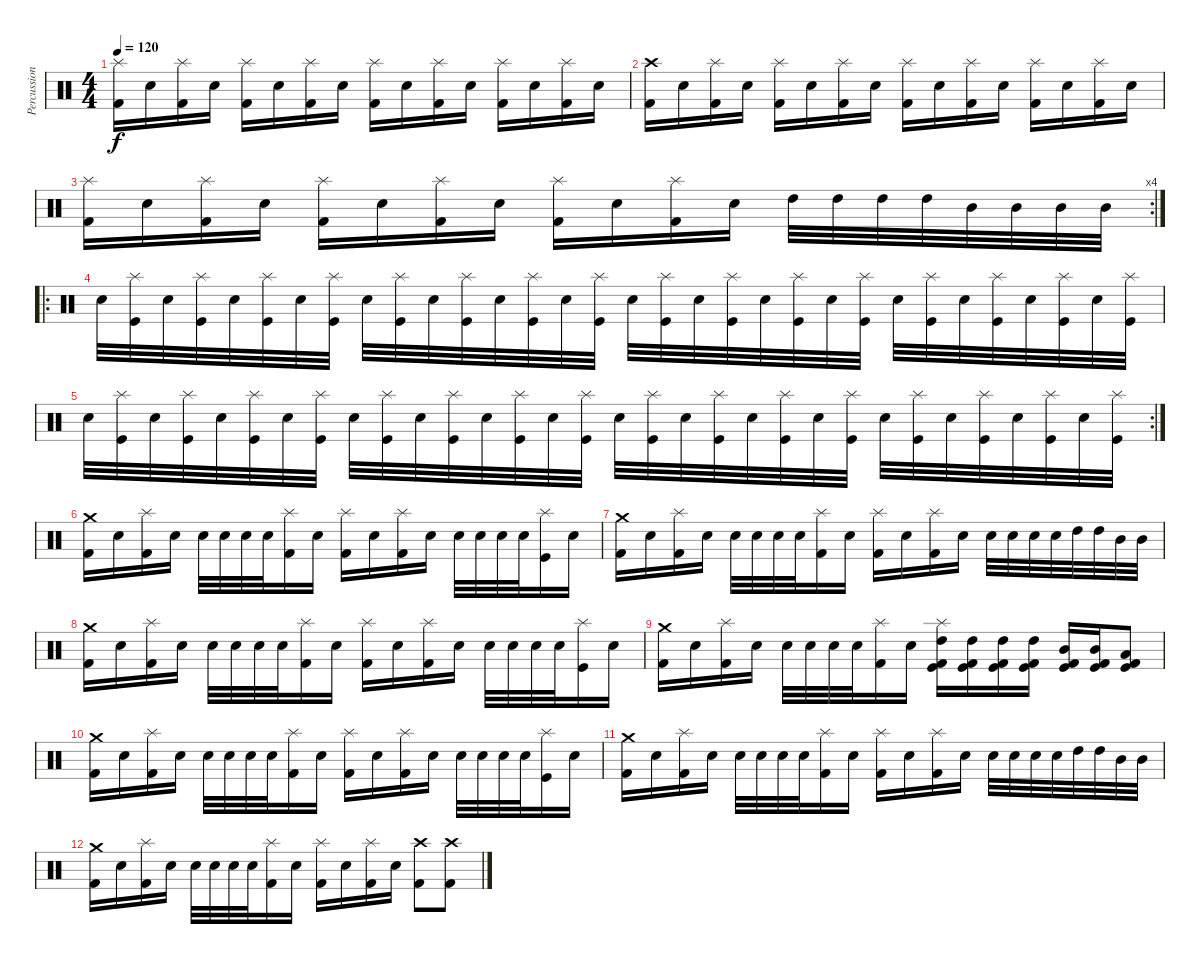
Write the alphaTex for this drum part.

\track ("Percussion" "Percussion") {instrument percussion}
\staff {score}
\articulation defaults
\ts (4 4)
\tempo 120
\clef neutral
\ks c
("Splash (hit)" "Kick (hit) 2").16{dy f} "Electric Snare (hit)".16 ("Splash (hit)" "Kick (hit) 2").16 "Electric Snare (hit)".16 ("Splash (hit)" "Kick (hit) 2").16 "Electric Snare (hit)".16 ("Splash (hit)" "Kick (hit) 2").16 "Electric Snare (hit)".16 ("Splash (hit)" "Kick (hit) 2").16 "Electric Snare (hit)".16 ("Splash (hit)" "Kick (hit) 2").16 "Electric Snare (hit)".16 ("Splash (hit)" "Kick (hit) 2").16 "Electric Snare (hit)".16 ("Splash (hit)" "Kick (hit) 2").16 "Electric Snare (hit)".16 |
("Crash high (hit)" "Kick (hit) 2").16 "Electric Snare (hit)".16 ("Splash (hit)" "Kick (hit) 2").16 "Electric Snare (hit)".16 ("Splash (hit)" "Kick (hit) 2").16 "Electric Snare (hit)".16 ("Splash (hit)" "Kick (hit) 2").16 "Electric Snare (hit)".16 ("Splash (hit)" "Kick (hit) 2").16 "Electric Snare (hit)".16 ("Splash (hit)" "Kick (hit) 2").16 "Electric Snare (hit)".16 ("Splash (hit)" "Kick (hit) 2").16 "Electric Snare (hit)".16 ("Splash (hit)" "Kick (hit) 2").16 "Electric Snare (hit)".16 |
\rc 4
("Splash (hit)" "Kick (hit) 2").16 "Electric Snare (hit)".16 ("Splash (hit)" "Kick (hit) 2").16 "Electric Snare (hit)".16 ("Splash (hit)" "Kick (hit) 2").16 "Electric Snare (hit)".16 ("Splash (hit)" "Kick (hit) 2").16 "Electric Snare (hit)".16 ("Splash (hit)" "Kick (hit) 2").16 "Electric Snare (hit)".16 ("Splash (hit)" "Kick (hit) 2").16 "Electric Snare (hit)".16 "High Tom (hit)".32 "High Tom (hit)".32 "High Tom (hit)".32 "High Tom (hit)".32 "Mid Tom (hit)".32 "Mid Tom (hit)".32 "Mid Tom (hit)".32 "Mid Tom (hit)".32 |
\ro "Electric Snare (hit)".32
("Splash (hit)" "Kick (hit)").32 "Electric Snare (hit)".32 ("Splash (hit)" "Kick (hit)").32 "Electric Snare (hit)".32 ("Splash (hit)" "Kick (hit)").32 "Electric Snare (hit)".32 ("Splash (hit)" "Kick (hit)").32 "Electric Snare (hit)".32 ("Splash (hit)" "Kick (hit)").32 "Electric Snare (hit)".32 ("Splash (hit)" "Kick (hit)").32 "Electric Snare (hit)".32 ("Splash (hit)" "Kick (hit)").32 "Electric Snare (hit)".32 ("Splash (hit)" "Kick (hit)").32 "Electric Snare (hit)".32 ("Splash (hit)" "Kick (hit)").32 "Electric Snare (hit)".32 ("Splash (hit)" "Kick (hit)").32 "Electric Snare (hit)".32 ("Splash (hit)" "Kick (hit)").32 "Electric Snare (hit)".32 ("Splash (hit)" "Kick (hit)").32 "Electric Snare (hit)".32 ("Splash (hit)" "Kick (hit)").32 "Electric Snare (hit)".32 ("Splash (hit)" "Kick (hit)").32 "Electric Snare (hit)".32 ("Splash (hit)" "Kick (hit)").32 "Electric Snare (hit)".32 ("Splash (hit)" "Kick (hit)").32 |
\rc 2 "Electric Snare (hit)".32
("Splash (hit)" "Kick (hit)").32 "Electric Snare (hit)".32 ("Splash (hit)" "Kick (hit)").32 "Electric Snare (hit)".32 ("Splash (hit)" "Kick (hit)").32 "Electric Snare (hit)".32 ("Splash (hit)" "Kick (hit)").32 "Electric Snare (hit)".32 ("Splash (hit)" "Kick (hit)").32 "Electric Snare (hit)".32 ("Splash (hit)" "Kick (hit)").32 "Electric Snare (hit)".32 ("Splash (hit)" "Kick (hit)").32 "Electric Snare (hit)".32 ("Splash (hit)" "Kick (hit)").32 "Electric Snare (hit)".32 ("Splash (hit)" "Kick (hit)").32 "Electric Snare (hit)".32 ("Splash (hit)" "Kick (hit)").32 "Electric Snare (hit)".32 ("Splash (hit)" "Kick (hit)").32 "Electric Snare (hit)".32 ("Splash (hit)" "Kick (hit)").32 "Electric Snare (hit)".32 ("Splash (hit)" "Kick (hit)").32 "Electric Snare (hit)".32 ("Splash (hit)" "Kick (hit)").32 "Electric Snare (hit)".32 ("Splash (hit)" "Kick (hit)").32 "Electric Snare (hit)".32 ("Splash (hit)" "Kick (hit)").32 |
("Crash medium (hit)" "Kick (hit) 2").16 "Electric Snare (hit)".16 ("Splash (hit)" "Kick (hit) 2").16 "Electric Snare (hit)".16 "Electric Snare (hit)".32 "Electric Snare (hit)".32 "Electric Snare (hit)".32 "Electric Snare (hit)".32 ("Splash (hit)" "Kick (hit) 2").16 "Electric Snare (hit)".16 ("Splash (hit)" "Kick (hit) 2").16 "Electric Snare (hit)".16 ("Splash (hit)" "Kick (hit) 2").16 "Electric Snare (hit)".16 "Electric Snare (hit)".32 "Electric Snare (hit)".32 "Electric Snare (hit)".32 "Electric Snare (hit)".32 ("Splash (hit)" "Kick (hit)").16 "Electric Snare (hit)".16 |
("Crash medium (hit)" "Kick (hit) 2").16 "Electric Snare (hit)".16 ("Splash (hit)" "Kick (hit) 2").16 "Electric Snare (hit)".16 "Electric Snare (hit)".32 "Electric Snare (hit)".32 "Electric Snare (hit)".32 "Electric Snare (hit)".32 ("Splash (hit)" "Kick (hit) 2").16 "Electric Snare (hit)".16 ("Splash (hit)" "Kick (hit) 2").16 "Electric Snare (hit)".16 ("Splash (hit)" "Kick (hit) 2").16 "Electric Snare (hit)".16 "Electric Snare (hit)".32 "Electric Snare (hit)".32 "Electric Snare (hit)".32 "Electric Snare (hit)".32 "High Tom (hit)".32 "High Tom (hit)".32 "Mid Tom (hit)".32 "Mid Tom (hit)".32 |
("Crash medium (hit)" "Kick (hit) 2").16 "Electric Snare (hit)".16 ("Splash (hit)" "Kick (hit) 2").16 "Electric Snare (hit)".16 "Electric Snare (hit)".32 "Electric Snare (hit)".32 "Electric Snare (hit)".32 "Electric Snare (hit)".32 ("Splash (hit)" "Kick (hit) 2").16 "Electric Snare (hit)".16 ("Splash (hit)" "Kick (hit) 2").16 "Electric Snare (hit)".16 ("Splash (hit)" "Kick (hit) 2").16 "Electric Snare (hit)".16 "Electric Snare (hit)".32 "Electric Snare (hit)".32 "Electric Snare (hit)".32 "Electric Snare (hit)".32 ("Splash (hit)" "Kick (hit)").16 "Electric Snare (hit)".16 |
("Crash medium (hit)" "Kick (hit) 2").16 "Electric Snare (hit)".16 ("Splash (hit)" "Kick (hit) 2").16 "Electric Snare (hit)".16 "Electric Snare (hit)".32 "Electric Snare (hit)".32 "Electric Snare (hit)".32 "Electric Snare (hit)".32 ("Splash (hit)" "Kick (hit) 2").16 "Electric Snare (hit)".16 ("Splash (hit)" "High Tom (hit)" "Kick (hit)" "Kick (hit) 2").16 ("High Tom (hit)" "Kick (hit)" "Kick (hit) 2").16 ("High Tom (hit)" "Kick (hit)" "Kick (hit) 2").16 ("High Tom (hit)" "Kick (hit)" "Kick (hit) 2").16 ("Mid Tom (hit)" "Kick (hit)" "Kick (hit) 2").16 ("Mid Tom (hit)" "Kick (hit)" "Kick (hit) 2").16 ("Low Tom (hit)" "Kick (hit)" "Kick (hit) 2").8 |
("Crash medium (hit)" "Kick (hit) 2").16 "Electric Snare (hit)".16 ("Splash (hit)" "Kick (hit) 2").16 "Electric Snare (hit)".16 "Electric Snare (hit)".32 "Electric Snare (hit)".32 "Electric Snare (hit)".32 "Electric Snare (hit)".32 ("Splash (hit)" "Kick (hit) 2").16 "Electric Snare (hit)".16 ("Splash (hit)" "Kick (hit) 2").16 "Electric Snare (hit)".16 ("Splash (hit)" "Kick (hit) 2").16 "Electric Snare (hit)".16 "Electric Snare (hit)".32 "Electric Snare (hit)".32 "Electric Snare (hit)".32 "Electric Snare (hit)".32 ("Splash (hit)" "Kick (hit)").16 "Electric Snare (hit)".16 |
("Crash medium (hit)" "Kick (hit) 2").16 "Electric Snare (hit)".16 ("Splash (hit)" "Kick (hit) 2").16 "Electric Snare (hit)".16 "Electric Snare (hit)".32 "Electric Snare (hit)".32 "Electric Snare (hit)".32 "Electric Snare (hit)".32 ("Splash (hit)" "Kick (hit) 2").16 "Electric Snare (hit)".16 ("Splash (hit)" "Kick (hit) 2").16 "Electric Snare (hit)".16 ("Splash (hit)" "Kick (hit) 2").16 "Electric Snare (hit)".16 "Electric Snare (hit)".32 "Electric Snare (hit)".32 "Electric Snare (hit)".32 "Electric Snare (hit)".32 "High Tom (hit)".32 "High Tom (hit)".32 "Mid Tom (hit)".32 "Mid Tom (hit)".32 |
("Crash medium (hit)" "Kick (hit) 2").16 "Electric Snare (hit)".16 ("Splash (hit)" "Kick (hit) 2").16 "Electric Snare (hit)".16 "Electric Snare (hit)".32 "Electric Snare (hit)".32 "Electric Snare (hit)".32 "Electric Snare (hit)".32 ("Splash (hit)" "Kick (hit) 2").16 "Electric Snare (hit)".16 ("Splash (hit)" "Kick (hit) 2").16 "Electric Snare (hit)".16 ("Splash (hit)" "Kick (hit) 2").16 "Electric Snare (hit)".16 ("Crash high (hit)" "Kick (hit) 2").8 ("Crash high (hit)" "Kick (hit) 2").8
